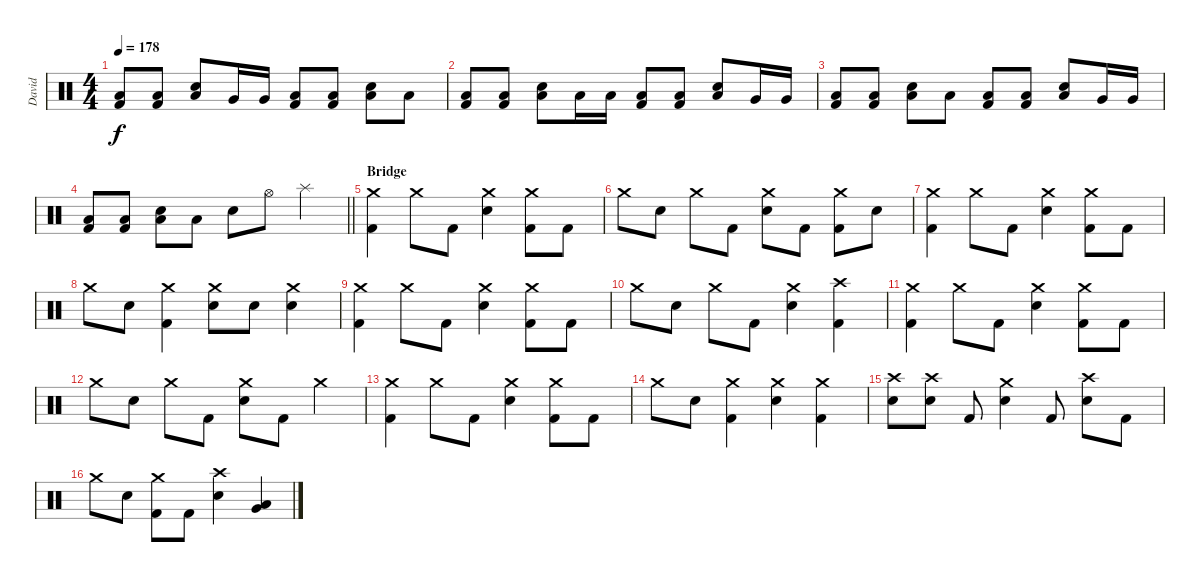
\track ("David" "David") {instrument percussion}
\staff {score}
\articulation defaults
\ts (4 4)
\tempo 178
\clef neutral
\ks c
("Low Floor Tom (hit)" "Kick (hit) 2").8{dy f} ("Low Floor Tom (hit)" "Kick (hit) 2").8 ("Low Floor Tom (hit)" "Electric Snare (hit)").8 "Very Low Tom (hit)".16 "Very Low Tom (hit)".16 ("Low Floor Tom (hit)" "Kick (hit) 2").8 ("Low Floor Tom (hit)" "Kick (hit) 2").8 ("Low Floor Tom (hit)" "Electric Snare (hit)").8 "Low Floor Tom (hit)".8 |
("Low Floor Tom (hit)" "Kick (hit) 2").8 ("Low Floor Tom (hit)" "Kick (hit) 2").8 ("Low Floor Tom (hit)" "Electric Snare (hit)").8 "Low Floor Tom (hit)".16 "Low Floor Tom (hit)".16 ("Low Floor Tom (hit)" "Kick (hit) 2").8 ("Low Floor Tom (hit)" "Kick (hit) 2").8 ("Low Floor Tom (hit)" "Electric Snare (hit)").8 "Very Low Tom (hit)".16 "Very Low Tom (hit)".16 |
("Low Floor Tom (hit)" "Kick (hit) 2").8 ("Low Floor Tom (hit)" "Kick (hit) 2").8 ("Low Floor Tom (hit)" "Electric Snare (hit)").8 "Low Floor Tom (hit)".8 ("Low Floor Tom (hit)" "Kick (hit) 2").8 ("Low Floor Tom (hit)" "Kick (hit) 2").8 ("Low Floor Tom (hit)" "Electric Snare (hit)").8 "Very Low Tom (hit)".16 "Very Low Tom (hit)".16 |
\barLineRight lightlight
("Low Floor Tom (hit)" "Kick (hit) 2").8 ("Low Tom (hit)" "Kick (hit) 2").8 ("Low Floor Tom (hit)" "Electric Snare (hit)").8 "Low Floor Tom (hit)".8 "Electric Snare (hit)".8 "Hi-Hat (open)".8 "Splash (hit)".4 |
\section ("" "Bridge")
("Crash medium (hit)" "Kick (hit) 2").4 "Crash medium (hit)".8 "Kick (hit) 2".8 ("Crash medium (hit)" "Electric Snare (hit)").4 ("Crash medium (hit)" "Kick (hit) 2").8 "Kick (hit) 2".8 |
"Crash medium (hit)".8 "Electric Snare (hit)".8 "Crash medium (hit)".8 "Kick (hit) 2".8 ("Crash medium (hit)" "Electric Snare (hit)").8 "Kick (hit) 2".8 ("Crash medium (hit)" "Kick (hit) 2").8 "Electric Snare (hit)".8 |
("Crash medium (hit)" "Kick (hit) 2").4 "Crash medium (hit)".8 "Kick (hit) 2".8 ("Crash medium (hit)" "Electric Snare (hit)").4 ("Crash medium (hit)" "Kick (hit) 2").8 "Kick (hit) 2".8 |
"Crash medium (hit)".8 "Electric Snare (hit)".8 ("Crash medium (hit)" "Kick (hit) 2").4 ("Crash medium (hit)" "Electric Snare (hit)").8 "Electric Snare (hit)".8 ("Crash medium (hit)" "Electric Snare (hit)").4 |
("Crash medium (hit)" "Kick (hit) 2").4 "Crash medium (hit)".8 "Kick (hit) 2".8 ("Crash medium (hit)" "Electric Snare (hit)").4 ("Crash medium (hit)" "Kick (hit) 2").8 "Kick (hit) 2".8 |
"Crash medium (hit)".8 "Electric Snare (hit)".8 "Crash medium (hit)".8 "Kick (hit) 2".8 ("Crash medium (hit)" "Electric Snare (hit)").4 ("Crash high (hit)" "Kick (hit) 2").4 |
("Crash medium (hit)" "Kick (hit) 2").4 "Crash medium (hit)".8 "Kick (hit) 2".8 ("Crash medium (hit)" "Electric Snare (hit)").4 ("Crash medium (hit)" "Kick (hit) 2").8 "Kick (hit) 2".8 |
"Crash medium (hit)".8 "Electric Snare (hit)".8 "Crash medium (hit)".8 "Kick (hit) 2".8 ("Crash medium (hit)" "Electric Snare (hit)").8 "Kick (hit) 2".8 "Crash medium (hit)".4 |
("Crash medium (hit)" "Kick (hit) 2").4 "Crash medium (hit)".8 "Kick (hit) 2".8 ("Crash medium (hit)" "Electric Snare (hit)").4 ("Crash medium (hit)" "Kick (hit) 2").8 "Kick (hit) 2".8 |
"Crash medium (hit)".8 "Electric Snare (hit)".8 ("Crash medium (hit)" "Kick (hit) 2").4 ("Crash medium (hit)" "Electric Snare (hit)").4 ("Crash medium (hit)" "Kick (hit) 2").4 |
("Crash high (hit)" "Electric Snare (hit)").8 ("Crash high (hit)" "Electric Snare (hit)").8 "Kick (hit) 2".8 ("Crash medium (hit)" "Electric Snare (hit)").4 "Kick (hit) 2".8 ("Crash high (hit)" "Electric Snare (hit)").8 "Kick (hit) 2".8 |
"Crash medium (hit)".8 "Electric Snare (hit)".8 ("Crash medium (hit)" "Kick (hit) 2").8 "Kick (hit) 2".8 ("Crash high (hit)" "Electric Snare (hit)").4 ("Low Floor Tom (hit)" "Very Low Tom (hit)").4
